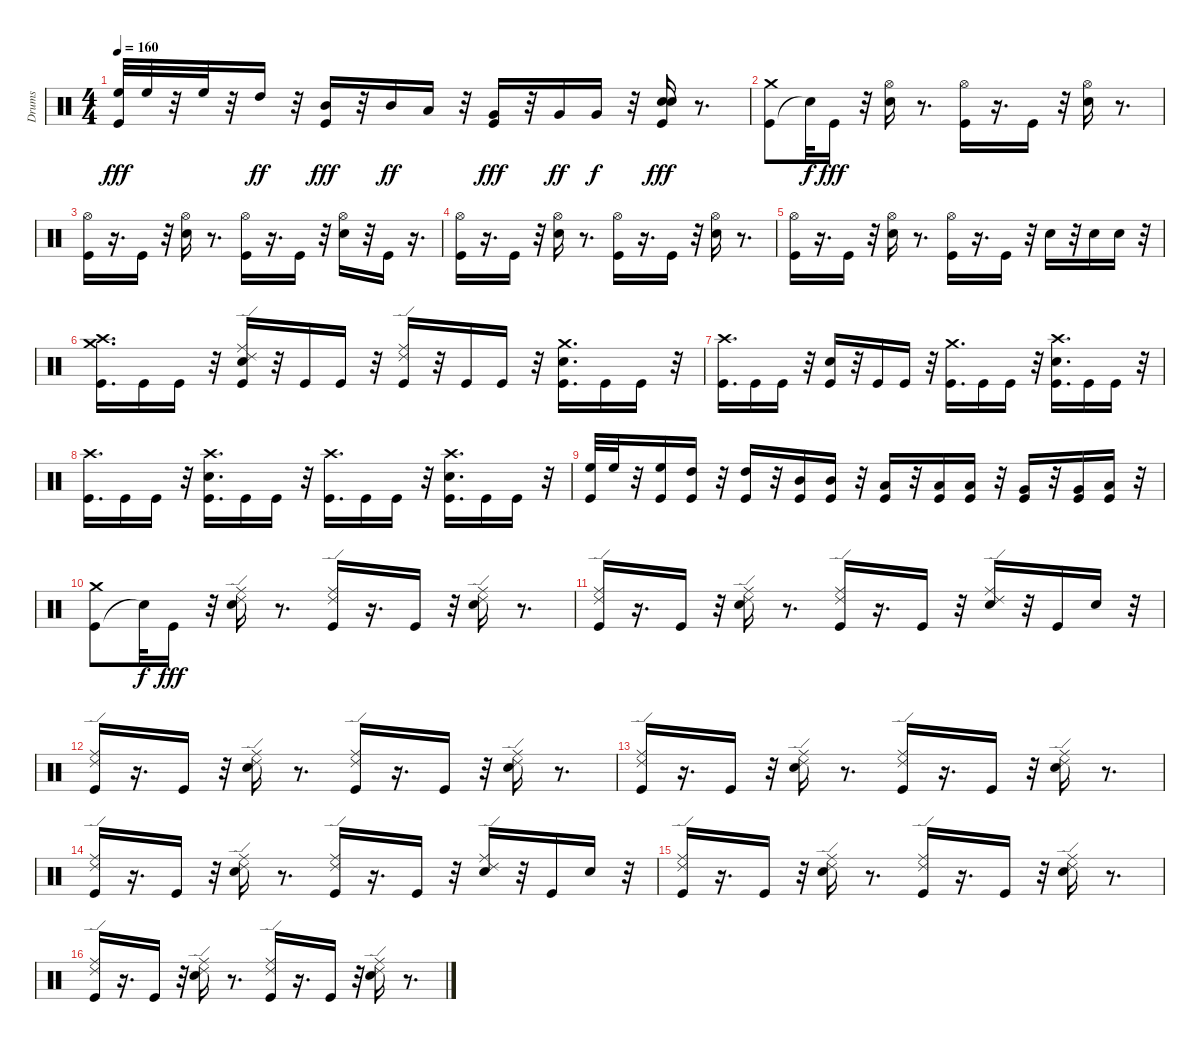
\track ("Drums" "Drums") {instrument percussion}
\staff {score}
\articulation defaults
\ts (4 4)
\tempo 160
\clef neutral
\ks c
("High Floor Tom (hit)" "Kick (hit)").32{dy fff} "High Floor Tom (hit)".32 r.32 "High Floor Tom (hit)".32 r.32 "High Tom (hit)".16{dy ff} r.32 ("Kick (hit)" "Mid Tom (hit)").16{dy fff} r.32 "Mid Tom (hit)".16{dy ff} "Low Tom (hit)".16 r.32 ("Kick (hit)" "Very Low Tom (hit)").16{dy fff} r.32 "Very Low Tom (hit)".16{dy ff} "Very Low Tom (hit)".16{dy f} r.32 ("Kick (hit)" "Snare (hit) 2" "Electric Snare (hit)").16{dy fff} r.8{d} |
("Kick (hit)" "Crash medium (hit)").8 "Snare (hit)"{t}.32{dy f} "Kick (hit)".16{dy fff} r.32 ("Hi-Hat (open)" "Electric Snare (hit)").16 r.8{d} ("Hi-Hat (open)" "Kick (hit)").16 r.16{d} "Kick (hit)".16 r.32 ("Hi-Hat (open)" "Electric Snare (hit)").16 r.8{d} |
("Kick (hit)" "Hi-Hat (open)").16 r.16{d} "Kick (hit)".16 r.32 ("Electric Snare (hit)" "Hi-Hat (open)").16 r.8{d} ("Hi-Hat (open)" "Kick (hit)").16 r.16{d} "Kick (hit)".16 r.32 ("Hi-Hat (open)" "Electric Snare (hit)").16 r.32 "Kick (hit)".16 r.16{d} |
("Hi-Hat (open)" "Kick (hit)").16 r.16{d} "Kick (hit)".16 r.32 ("Hi-Hat (open)" "Electric Snare (hit)").16 r.8{d} ("Hi-Hat (open)" "Kick (hit)").16 r.16{d} "Kick (hit)".16 r.32 ("Hi-Hat (open)" "Electric Snare (hit)").16 r.8{d} |
("Kick (hit)" "Hi-Hat (open)").16 r.16{d} "Kick (hit)".16 r.32 ("Electric Snare (hit)" "Hi-Hat (open)").16 r.8{d} ("Hi-Hat (open)" "Kick (hit)").16 r.16{d} "Kick (hit)".16 r.32 "Electric Snare (hit)".16 r.32 "Electric Snare (hit)".16 "Electric Snare (hit)".16 r.32 |
("Crash medium (hit)" "Crash high (hit)" "Kick (hit)").16{d} "Kick (hit)".16 "Kick (hit)".16 r.32 ("Electric Snare (hit)" "Kick (hit)" "Ride (middle)" "Ride (edge) 2").16 r.32 "Kick (hit)".16 "Kick (hit)".16 r.32 ("Kick (hit)" "Ride (middle)" "Ride (edge) 2").16 r.32 "Kick (hit)".16 "Kick (hit)".16 r.32 ("Crash medium (hit)" "Electric Snare (hit)" "Kick (hit)").16{d} "Kick (hit)".16 "Kick (hit)".16 r.32 |
("Crash high (hit)" "Kick (hit)").16{d} "Kick (hit)".16 "Kick (hit)".16 r.32 ("Electric Snare (hit)" "Kick (hit)").16 r.32 "Kick (hit)".16 "Kick (hit)".16 r.32 ("Kick (hit)" "Crash medium (hit)").16{d} "Kick (hit)".16 "Kick (hit)".16 r.32 ("Electric Snare (hit)" "Kick (hit)" "Crash high (hit)").16{d} "Kick (hit)".16 "Kick (hit)".16 r.32 |
("Crash high (hit)" "Kick (hit)").16{d} "Kick (hit)".16 "Kick (hit)".16 r.32 ("Crash high (hit)" "Electric Snare (hit)" "Kick (hit)").16{d} "Kick (hit)".16 "Kick (hit)".16 r.32 ("Crash high (hit)" "Kick (hit)").16{d} "Kick (hit)".16 "Kick (hit)".16 r.32 ("Crash high (hit)" "Electric Snare (hit)" "Kick (hit)").16{d} "Kick (hit)".16 "Kick (hit)".16 r.32 |
("Kick (hit)" "High Floor Tom (hit)").32 "High Floor Tom (hit)".32 r.32 ("High Floor Tom (hit)" "Kick (hit)").16 ("High Tom (hit)" "Kick (hit)").16 r.32 ("High Tom (hit)" "Kick (hit)").16 r.32 ("Mid Tom (hit)" "Kick (hit)").16 ("Mid Tom (hit)" "Kick (hit)").16 r.32 ("Low Tom (hit)" "Kick (hit)").16 r.32 ("Low Tom (hit)" "Kick (hit)").16 ("Low Tom (hit)" "Kick (hit)").16 r.32 ("Very Low Tom (hit)" "Kick (hit)").16 r.32 ("Very Low Tom (hit)" "Kick (hit)").16 ("Low Floor Tom (hit)" "Kick (hit)").16 r.32 |
("Kick (hit)" "Crash medium (hit)").8 "Snare (hit)"{t}.32{dy f} "Kick (hit)".16{dy fff} r.32 ("Ride (middle)" "Ride (edge) 2" "Electric Snare (hit)").16 r.8{d} ("Ride (middle)" "Ride (edge) 2" "Kick (hit)").16 r.16{d} "Kick (hit)".16 r.32 ("Ride (middle)" "Ride (edge) 2" "Electric Snare (hit)").16 r.8{d} |
("Kick (hit)" "Ride (middle)" "Ride (edge) 2").16 r.16{d} "Kick (hit)".16 r.32 ("Electric Snare (hit)" "Ride (middle)" "Ride (edge) 2").16 r.8{d} ("Kick (hit)" "Ride (middle)" "Ride (edge) 2").16 r.16{d} "Kick (hit)".16 r.32 ("Electric Snare (hit)" "Ride (middle)" "Ride (edge) 2").16 r.32 "Kick (hit)".16 "Electric Snare (hit)".16 r.32 |
("Ride (middle)" "Ride (edge) 2" "Kick (hit)").16 r.16{d} "Kick (hit)".16 r.32 ("Ride (middle)" "Ride (edge) 2" "Electric Snare (hit)").16 r.8{d} ("Ride (middle)" "Ride (edge) 2" "Kick (hit)").16 r.16{d} "Kick (hit)".16 r.32 ("Ride (middle)" "Ride (edge) 2" "Electric Snare (hit)").16 r.8{d} |
("Kick (hit)" "Ride (middle)" "Ride (edge) 2").16 r.16{d} "Kick (hit)".16 r.32 ("Electric Snare (hit)" "Ride (middle)" "Ride (edge) 2").16 r.8{d} ("Kick (hit)" "Ride (middle)" "Ride (edge) 2").16 r.16{d} "Kick (hit)".16 r.32 ("Electric Snare (hit)" "Ride (middle)" "Ride (edge) 2").16 r.8{d} |
("Kick (hit)" "Ride (middle)" "Ride (edge) 2").16 r.16{d} "Kick (hit)".16 r.32 ("Electric Snare (hit)" "Ride (middle)" "Ride (edge) 2").16 r.8{d} ("Kick (hit)" "Ride (middle)" "Ride (edge) 2").16 r.16{d} "Kick (hit)".16 r.32 ("Electric Snare (hit)" "Ride (middle)" "Ride (edge) 2").16 r.32 "Kick (hit)".16 "Electric Snare (hit)".16 r.32 |
("Kick (hit)" "Ride (middle)" "Ride (edge) 2").16 r.16{d} "Kick (hit)".16 r.32 ("Electric Snare (hit)" "Ride (middle)" "Ride (edge) 2").16 r.8{d} ("Kick (hit)" "Ride (middle)" "Ride (edge) 2").16 r.16{d} "Kick (hit)".16 r.32 ("Electric Snare (hit)" "Ride (middle)" "Ride (edge) 2").16 r.8{d} |
("Kick (hit)" "Ride (middle)" "Ride (edge) 2").16 r.16{d} "Kick (hit)".16 r.32 ("Electric Snare (hit)" "Ride (middle)" "Ride (edge) 2").16 r.8{d} ("Kick (hit)" "Ride (middle)" "Ride (edge) 2").16 r.16{d} "Kick (hit)".16 r.32 ("Electric Snare (hit)" "Ride (middle)" "Ride (edge) 2").16 r.8{d}
